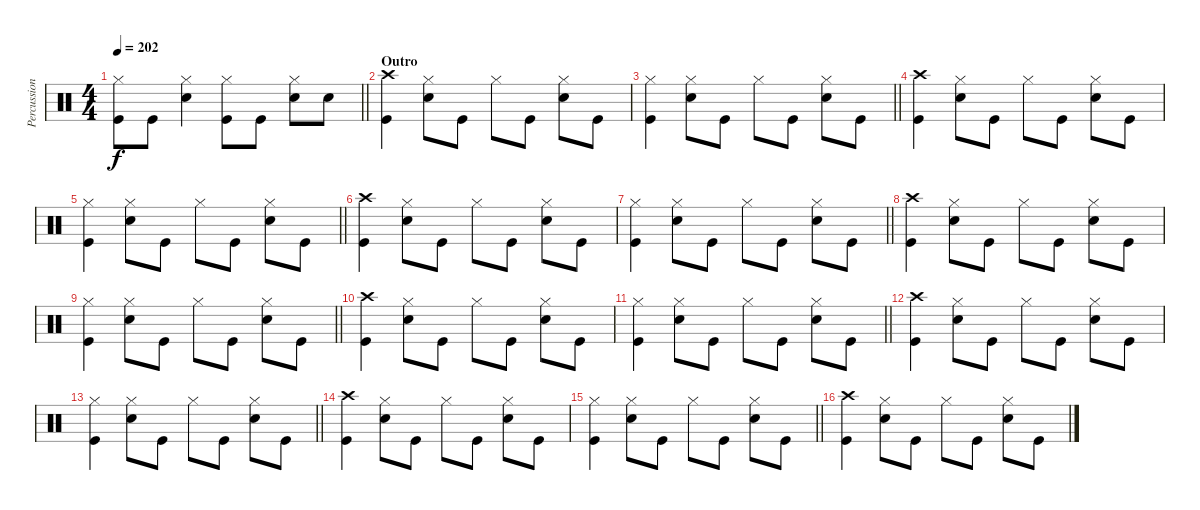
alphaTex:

\track ("Percussion" "Percussion") {instrument percussion}
\staff {score}
\articulation defaults
\ts (4 4)
\tempo 202
\clef neutral
\barLineRight lightlight
\ks c
("Hi-Hat (closed)" "Kick (hit)").8{dy f} "Kick (hit)".8 ("Hi-Hat (closed)" "Snare (hit) 2").4 ("Hi-Hat (closed)" "Kick (hit)").8 "Kick (hit)".8 ("Hi-Hat (closed)" "Snare (hit) 2").8 "Snare (hit) 2".8 |
\section ("" "Outro")
("Crash high (hit)" "Kick (hit)").4 ("Hi-Hat (closed)" "Snare (hit) 2").8 "Kick (hit)".8 "Hi-Hat (closed)".8 "Kick (hit)".8 ("Hi-Hat (closed)" "Snare (hit) 2").8 "Kick (hit)".8 |
\barLineRight lightlight
("Hi-Hat (closed)" "Kick (hit)").4 ("Hi-Hat (closed)" "Snare (hit) 2").8 "Kick (hit)".8 "Hi-Hat (closed)".8 "Kick (hit)".8 ("Hi-Hat (closed)" "Snare (hit) 2").8 "Kick (hit)".8 |
("Crash high (hit)" "Kick (hit)").4 ("Hi-Hat (closed)" "Snare (hit) 2").8 "Kick (hit)".8 "Hi-Hat (closed)".8 "Kick (hit)".8 ("Hi-Hat (closed)" "Snare (hit) 2").8 "Kick (hit)".8 |
\barLineRight lightlight
("Hi-Hat (closed)" "Kick (hit)").4 ("Hi-Hat (closed)" "Snare (hit) 2").8 "Kick (hit)".8 "Hi-Hat (closed)".8 "Kick (hit)".8 ("Hi-Hat (closed)" "Snare (hit) 2").8 "Kick (hit)".8 |
("Crash high (hit)" "Kick (hit)").4 ("Hi-Hat (closed)" "Snare (hit) 2").8 "Kick (hit)".8 "Hi-Hat (closed)".8 "Kick (hit)".8 ("Hi-Hat (closed)" "Snare (hit) 2").8 "Kick (hit)".8 |
\barLineRight lightlight
("Hi-Hat (closed)" "Kick (hit)").4 ("Hi-Hat (closed)" "Snare (hit) 2").8 "Kick (hit)".8 "Hi-Hat (closed)".8 "Kick (hit)".8 ("Hi-Hat (closed)" "Snare (hit) 2").8 "Kick (hit)".8 |
("Crash high (hit)" "Kick (hit)").4 ("Hi-Hat (closed)" "Snare (hit) 2").8 "Kick (hit)".8 "Hi-Hat (closed)".8 "Kick (hit)".8 ("Hi-Hat (closed)" "Snare (hit) 2").8 "Kick (hit)".8 |
\barLineRight lightlight
("Hi-Hat (closed)" "Kick (hit)").4 ("Hi-Hat (closed)" "Snare (hit) 2").8 "Kick (hit)".8 "Hi-Hat (closed)".8 "Kick (hit)".8 ("Hi-Hat (closed)" "Snare (hit) 2").8 "Kick (hit)".8 |
("Crash high (hit)" "Kick (hit)").4 ("Hi-Hat (closed)" "Snare (hit) 2").8 "Kick (hit)".8 "Hi-Hat (closed)".8 "Kick (hit)".8 ("Hi-Hat (closed)" "Snare (hit) 2").8 "Kick (hit)".8 |
\barLineRight lightlight
("Hi-Hat (closed)" "Kick (hit)").4 ("Hi-Hat (closed)" "Snare (hit) 2").8 "Kick (hit)".8 "Hi-Hat (closed)".8 "Kick (hit)".8 ("Hi-Hat (closed)" "Snare (hit) 2").8 "Kick (hit)".8 |
("Crash high (hit)" "Kick (hit)").4 ("Hi-Hat (closed)" "Snare (hit) 2").8 "Kick (hit)".8 "Hi-Hat (closed)".8 "Kick (hit)".8 ("Hi-Hat (closed)" "Snare (hit) 2").8 "Kick (hit)".8 |
\barLineRight lightlight
("Hi-Hat (closed)" "Kick (hit)").4 ("Hi-Hat (closed)" "Snare (hit) 2").8 "Kick (hit)".8 "Hi-Hat (closed)".8 "Kick (hit)".8 ("Hi-Hat (closed)" "Snare (hit) 2").8 "Kick (hit)".8 |
("Crash high (hit)" "Kick (hit)").4 ("Hi-Hat (closed)" "Snare (hit) 2").8 "Kick (hit)".8 "Hi-Hat (closed)".8 "Kick (hit)".8 ("Hi-Hat (closed)" "Snare (hit) 2").8 "Kick (hit)".8 |
\barLineRight lightlight
("Hi-Hat (closed)" "Kick (hit)").4 ("Hi-Hat (closed)" "Snare (hit) 2").8 "Kick (hit)".8 "Hi-Hat (closed)".8 "Kick (hit)".8 ("Hi-Hat (closed)" "Snare (hit) 2").8 "Kick (hit)".8 |
("Crash high (hit)" "Kick (hit)").4 ("Hi-Hat (closed)" "Snare (hit) 2").8 "Kick (hit)".8 "Hi-Hat (closed)".8 "Kick (hit)".8 ("Hi-Hat (closed)" "Snare (hit) 2").8 "Kick (hit)".8
